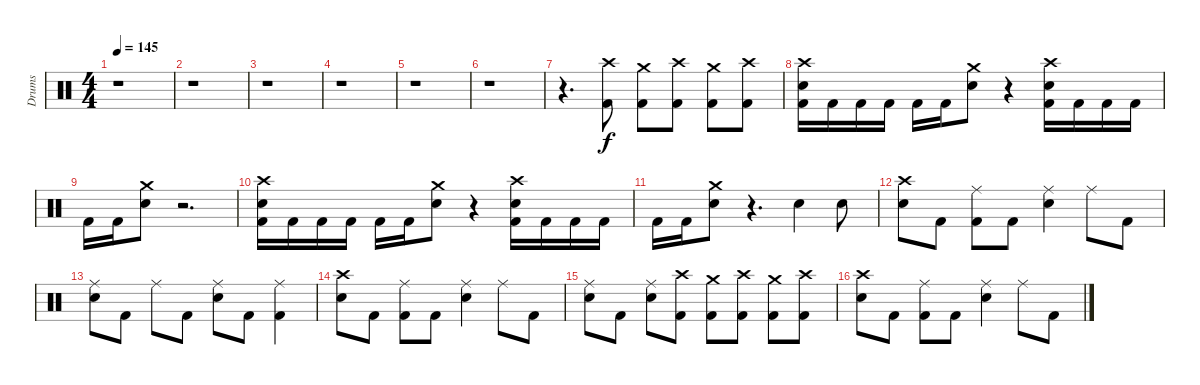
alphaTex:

\track ("Drums" "Drums") {instrument percussion}
\staff {score}
\articulation defaults
\ts (4 4)
\tempo 145
\clef neutral
\ks c
r.1{dy f} |
r.1 |
r.1 |
r.1 |
r.1 |
r.1 |
r.4{d} ("Crash high (hit)" "Kick (hit) 2").8 ("Crash medium (hit)" "Kick (hit) 2").8 ("Crash high (hit)" "Kick (hit) 2").8 ("Crash medium (hit)" "Kick (hit) 2").8 ("Crash high (hit)" "Kick (hit) 2").8 |
("Crash high (hit)" "Snare (hit) 2" "Kick (hit) 2").16 "Kick (hit) 2".16 "Kick (hit) 2".16 "Kick (hit) 2".16 "Kick (hit) 2".16 "Kick (hit) 2".16 ("Crash medium (hit)" "Snare (hit) 2").8 r.4 ("Crash high (hit)" "Snare (hit) 2" "Kick (hit) 2").16 "Kick (hit) 2".16 "Kick (hit) 2".16 "Kick (hit) 2".16 |
"Kick (hit) 2".16 "Kick (hit) 2".16 ("Crash medium (hit)" "Snare (hit) 2").8 r.2{d} |
("Crash high (hit)" "Snare (hit) 2" "Kick (hit) 2").16 "Kick (hit) 2".16 "Kick (hit) 2".16 "Kick (hit) 2".16 "Kick (hit) 2".16 "Kick (hit) 2".16 ("Crash medium (hit)" "Snare (hit) 2").8 r.4 ("Crash high (hit)" "Snare (hit) 2" "Kick (hit) 2").16 "Kick (hit) 2".16 "Kick (hit) 2".16 "Kick (hit) 2".16 |
"Kick (hit) 2".16 "Kick (hit) 2".16 ("Crash medium (hit)" "Snare (hit) 2").8 r.4{d} "Snare (hit) 2".4 "Snare (hit) 2".8 |
("Crash high (hit)" "Snare (hit) 2").8 "Kick (hit) 2".8 ("Ride (middle)" "Kick (hit) 2").8 "Kick (hit) 2".8 ("Ride (middle)" "Snare (hit) 2").4 "Ride (middle)".8 "Kick (hit) 2".8 |
("Ride (middle)" "Snare (hit) 2").8 "Kick (hit) 2".8 "Ride (middle)".8 "Kick (hit) 2".8 ("Ride (middle)" "Snare (hit) 2").8 "Kick (hit) 2".8 ("Ride (middle)" "Kick (hit) 2").4 |
("Crash high (hit)" "Snare (hit) 2").8 "Kick (hit) 2".8 ("Ride (middle)" "Kick (hit) 2").8 "Kick (hit) 2".8 ("Ride (middle)" "Snare (hit) 2").4 "Ride (middle)".8 "Kick (hit) 2".8 |
("Ride (middle)" "Snare (hit) 2").8 "Kick (hit) 2".8 ("Ride (middle)" "Snare (hit) 2").8 ("Crash high (hit)" "Kick (hit) 2").8 ("Crash medium (hit)" "Kick (hit) 2").8 ("Crash high (hit)" "Kick (hit) 2").8 ("Crash medium (hit)" "Kick (hit) 2").8 ("Crash high (hit)" "Kick (hit) 2").8 |
("Crash high (hit)" "Snare (hit) 2").8 "Kick (hit) 2".8 ("Ride (middle)" "Kick (hit) 2").8 "Kick (hit) 2".8 ("Ride (middle)" "Snare (hit) 2").4 "Ride (middle)".8 "Kick (hit) 2".8
